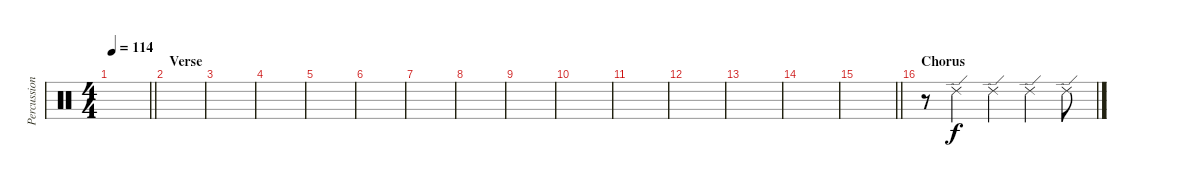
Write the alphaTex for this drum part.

\track ("Percussion (Brandon Saller)" "Percussion") {instrument percussion}
\staff {score}
\articulation defaults
\ts (4 4)
\tempo 114
\clef neutral
\barLineRight lightlight
\ks c
|
\section ("" "Verse")
|
|
|
|
|
|
|
|
|
|
|
|
|
\barLineRight lightlight
|
\section ("" "Chorus")
r.8 "Ride (edge) 2".4 "Ride (edge) 2".4 "Ride (edge) 2".4 "Ride (edge) 2".8
